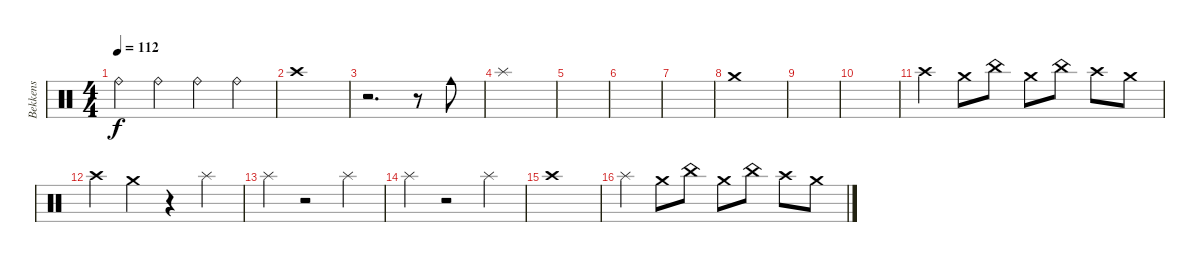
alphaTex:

\track ("Bekkens" "Bekkens") {instrument percussion}
\staff {score}
\articulation defaults
\ts (4 4)
\tempo 112
\clef neutral
\ks c "Ride (bell)"{x}.4{dy f} "Ride (bell)"{x}.4 "Ride (bell)"{x}.4 "Ride (bell)"{x}.4
|
"Crash high (hit)".1 |
r.2{d} r.8 "Cowbell medium (hit)"{x}.8 |
"Splash (hit)".1 |
|
|
|
"Crash medium (hit)".1 |
|
|
"Crash high (hit)".4 "Crash medium (hit)".8 "China (hit)".8 "Crash medium (hit)".8 "China (hit)".8 "Crash high (hit)".8 "Crash medium (hit)".8 |
"Crash high (hit)".4 "Crash medium (hit)".4 r.4 "Splash (hit)".4 |
"Splash (hit)".4 r.2 "Splash (hit)".4 |
"Splash (hit)".4 r.2 "Splash (hit)".4 |
"Crash high (hit)".1 |
"Splash (hit)".4 "Crash medium (hit)".8 "China (hit)".8 "Crash medium (hit)".8 "China (hit)".8 "Crash high (hit)".8 "Crash medium (hit)".8
